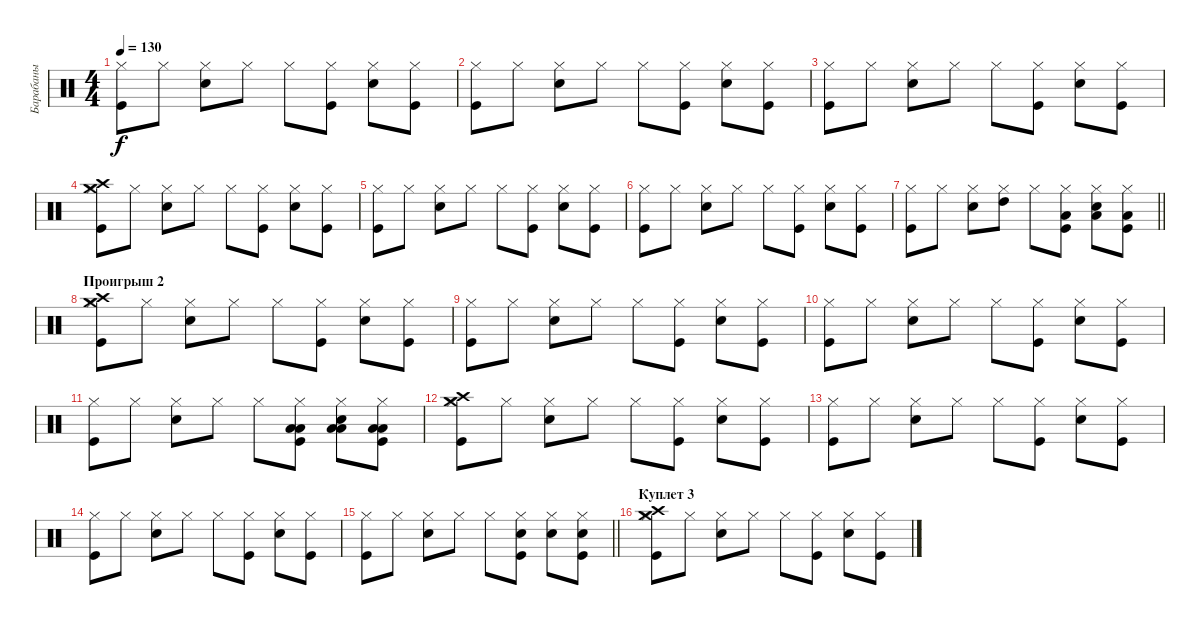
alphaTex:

\track ("Барабаны" "Барабаны") {instrument percussion}
\staff {score}
\articulation defaults
\ts (4 4)
\tempo 130
\clef neutral
\ks c
("Kick (hit)" "Hi-Hat (closed)").8{dy f} "Hi-Hat (closed)".8 ("Snare (hit) 2" "Hi-Hat (closed)").8 "Hi-Hat (closed)".8 "Hi-Hat (closed)".8 ("Kick (hit)" "Hi-Hat (closed)").8 ("Snare (hit) 2" "Hi-Hat (closed)").8 ("Kick (hit)" "Hi-Hat (closed)").8 |
("Kick (hit)" "Hi-Hat (closed)").8 "Hi-Hat (closed)".8 ("Snare (hit) 2" "Hi-Hat (closed)").8 "Hi-Hat (closed)".8 "Hi-Hat (closed)".8 ("Kick (hit)" "Hi-Hat (closed)").8 ("Snare (hit) 2" "Hi-Hat (closed)").8 ("Kick (hit)" "Hi-Hat (closed)").8 |
("Kick (hit)" "Hi-Hat (closed)").8 "Hi-Hat (closed)".8 ("Snare (hit) 2" "Hi-Hat (closed)").8 "Hi-Hat (closed)".8 "Hi-Hat (closed)".8 ("Kick (hit)" "Hi-Hat (closed)").8 ("Snare (hit) 2" "Hi-Hat (closed)").8 ("Kick (hit)" "Hi-Hat (closed)").8 |
("Kick (hit)" "Hi-Hat (closed)" "Crash high (hit)" "Crash medium (hit)").8 "Hi-Hat (closed)".8 ("Snare (hit) 2" "Hi-Hat (closed)").8 "Hi-Hat (closed)".8 "Hi-Hat (closed)".8 ("Kick (hit)" "Hi-Hat (closed)").8 ("Snare (hit) 2" "Hi-Hat (closed)").8 ("Kick (hit)" "Hi-Hat (closed)").8 |
("Kick (hit)" "Hi-Hat (closed)").8 "Hi-Hat (closed)".8 ("Snare (hit) 2" "Hi-Hat (closed)").8 "Hi-Hat (closed)".8 "Hi-Hat (closed)".8 ("Kick (hit)" "Hi-Hat (closed)").8 ("Snare (hit) 2" "Hi-Hat (closed)").8 ("Kick (hit)" "Hi-Hat (closed)").8 |
("Kick (hit)" "Hi-Hat (closed)").8 "Hi-Hat (closed)".8 ("Snare (hit) 2" "Hi-Hat (closed)").8 "Hi-Hat (closed)".8 "Hi-Hat (closed)".8 ("Kick (hit)" "Hi-Hat (closed)").8 ("Snare (hit) 2" "Hi-Hat (closed)").8 ("Kick (hit)" "Hi-Hat (closed)").8 |
\barLineRight lightlight
("Kick (hit)" "Hi-Hat (closed)").8 "Hi-Hat (closed)".8 ("Snare (hit) 2" "Hi-Hat (closed)").8 ("Hi-Hat (closed)" "High Tom (hit)").8 "Hi-Hat (closed)".8 ("Kick (hit)" "Hi-Hat (closed)" "Low Floor Tom (hit)").8 ("Snare (hit) 2" "Hi-Hat (closed)" "Low Floor Tom (hit)").8 ("Kick (hit)" "Hi-Hat (closed)" "Low Floor Tom (hit)").8 |
\section ("" "Проигрыш 2")
("Kick (hit)" "Hi-Hat (closed)" "Crash high (hit)" "Crash medium (hit)").8 "Hi-Hat (closed)".8 ("Snare (hit) 2" "Hi-Hat (closed)").8 "Hi-Hat (closed)".8 "Hi-Hat (closed)".8 ("Kick (hit)" "Hi-Hat (closed)").8 ("Snare (hit) 2" "Hi-Hat (closed)").8 ("Kick (hit)" "Hi-Hat (closed)").8 |
("Kick (hit)" "Hi-Hat (closed)").8 "Hi-Hat (closed)".8 ("Snare (hit) 2" "Hi-Hat (closed)").8 "Hi-Hat (closed)".8 "Hi-Hat (closed)".8 ("Kick (hit)" "Hi-Hat (closed)").8 ("Snare (hit) 2" "Hi-Hat (closed)").8 ("Kick (hit)" "Hi-Hat (closed)").8 |
("Kick (hit)" "Hi-Hat (closed)").8 "Hi-Hat (closed)".8 ("Snare (hit) 2" "Hi-Hat (closed)").8 "Hi-Hat (closed)".8 "Hi-Hat (closed)".8 ("Kick (hit)" "Hi-Hat (closed)").8 ("Snare (hit) 2" "Hi-Hat (closed)").8 ("Kick (hit)" "Hi-Hat (closed)").8 |
("Kick (hit)" "Hi-Hat (closed)").8 "Hi-Hat (closed)".8 ("Snare (hit) 2" "Hi-Hat (closed)").8 "Hi-Hat (closed)".8 "Hi-Hat (closed)".8 ("Kick (hit)" "Hi-Hat (closed)" "Low Floor Tom (hit)" "Low Tom (hit)").8 ("Snare (hit) 2" "Hi-Hat (closed)" "Low Floor Tom (hit)" "Low Tom (hit)").8 ("Kick (hit)" "Hi-Hat (closed)" "Low Floor Tom (hit)" "Low Tom (hit)").8 |
("Kick (hit)" "Hi-Hat (closed)" "Crash high (hit)" "Crash medium (hit)").8 "Hi-Hat (closed)".8 ("Snare (hit) 2" "Hi-Hat (closed)").8 "Hi-Hat (closed)".8 "Hi-Hat (closed)".8 ("Kick (hit)" "Hi-Hat (closed)").8 ("Snare (hit) 2" "Hi-Hat (closed)").8 ("Kick (hit)" "Hi-Hat (closed)").8 |
("Kick (hit)" "Hi-Hat (closed)").8 "Hi-Hat (closed)".8 ("Snare (hit) 2" "Hi-Hat (closed)").8 "Hi-Hat (closed)".8 "Hi-Hat (closed)".8 ("Kick (hit)" "Hi-Hat (closed)").8 ("Snare (hit) 2" "Hi-Hat (closed)").8 ("Kick (hit)" "Hi-Hat (closed)").8 |
("Kick (hit)" "Hi-Hat (closed)").8 "Hi-Hat (closed)".8 ("Snare (hit) 2" "Hi-Hat (closed)").8 "Hi-Hat (closed)".8 "Hi-Hat (closed)".8 ("Kick (hit)" "Hi-Hat (closed)").8 ("Snare (hit) 2" "Hi-Hat (closed)").8 ("Kick (hit)" "Hi-Hat (closed)").8 |
\barLineRight lightlight
("Kick (hit)" "Hi-Hat (closed)").8 "Hi-Hat (closed)".8 ("Snare (hit) 2" "Hi-Hat (closed)").8 "Hi-Hat (closed)".8 "Hi-Hat (closed)".8 ("Kick (hit)" "Snare (hit) 2" "Hi-Hat (closed)").8 ("Snare (hit) 2" "Hi-Hat (closed)").8 ("Kick (hit)" "Snare (hit) 2" "Hi-Hat (closed)").8 |
\section ("" "Куплет 3")
("Kick (hit)" "Hi-Hat (closed)" "Crash high (hit)" "Crash medium (hit)").8 "Hi-Hat (closed)".8 ("Snare (hit) 2" "Hi-Hat (closed)").8 "Hi-Hat (closed)".8 "Hi-Hat (closed)".8 ("Kick (hit)" "Hi-Hat (closed)").8 ("Snare (hit) 2" "Hi-Hat (closed)").8 ("Kick (hit)" "Hi-Hat (closed)").8
